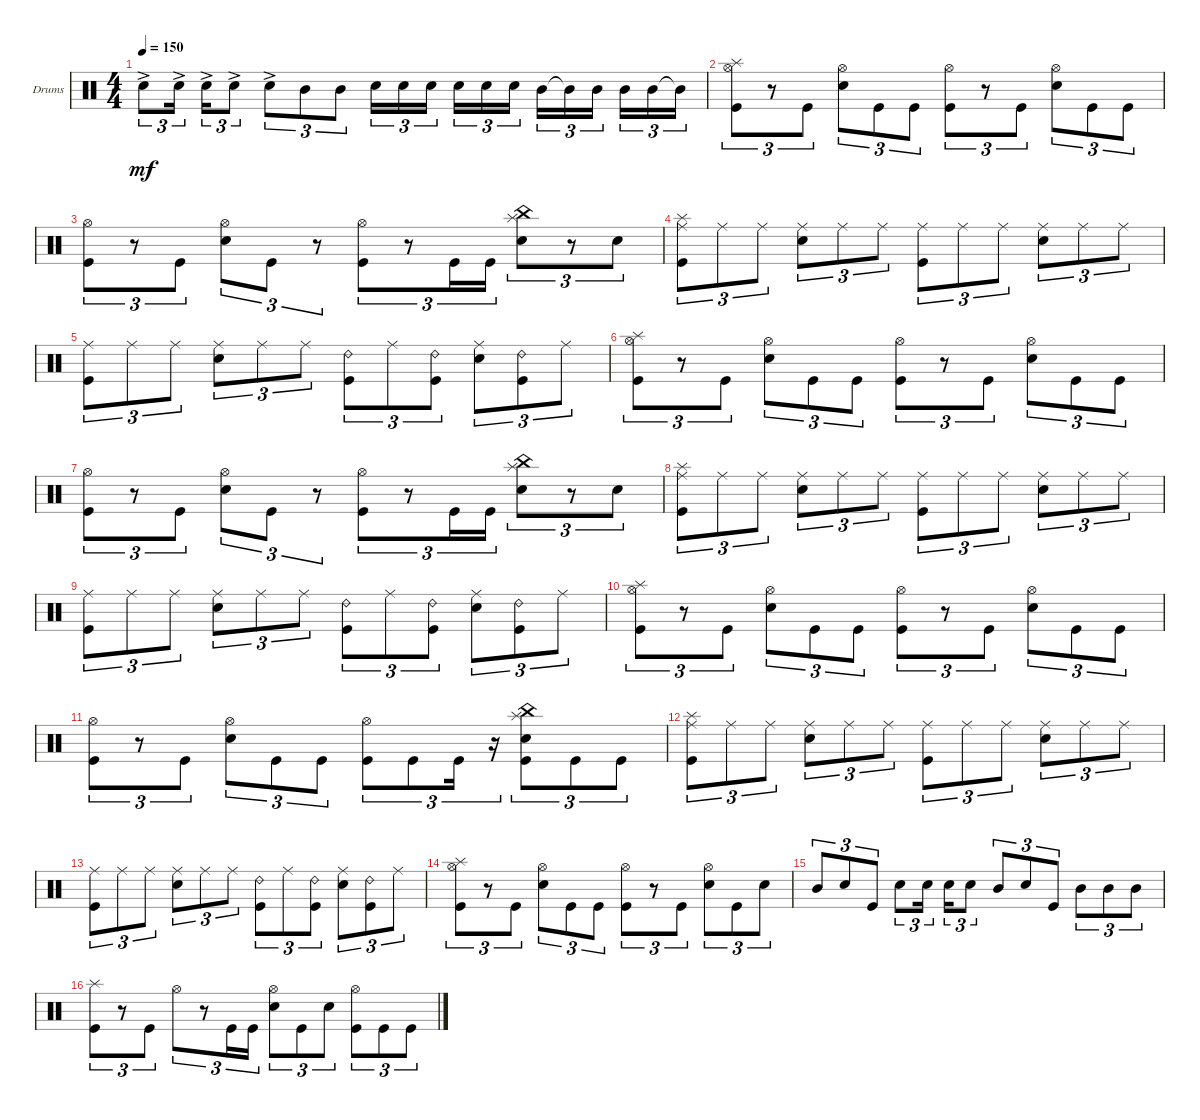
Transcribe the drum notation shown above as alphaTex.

\bracketExtendMode groupsimilarinstruments
\firstSystemTrackNameOrientation horizontal
\otherSystemsTrackNameOrientation horizontal
\track ("Drumkit" "Drums") {instrument percussion}
\staff {score}
\articulation defaults
\ts (4 4)
\tempo 150
\clef neutral
\ks c "Snare (hit) 2"{ac}.8{tu (3 2) dy mf} "Snare (hit) 2"{ac}.16{tu (3 2)} "Snare (hit) 2"{ac}.16{tu (3 2)} "Snare (hit) 2"{ac}.8{tu (3 2)} "Snare (hit) 2"{ac}.8{tu (3 2)} "Mid Tom (hit)".8{tu (3 2)} "Mid Tom (hit)".8{tu (3 2)} "Snare (hit) 2".16{tu (3 2)} "Snare (hit) 2".16{tu (3 2)} "Snare (hit) 2".16{tu (3 2)} "Snare (hit) 2".16{tu (3 2)} "Snare (hit) 2".16{tu (3 2)} "Snare (hit) 2".16{tu (3 2)} "Mid Tom (hit)".16{tu (3 2)} "Mid Tom (hit)"{t}.16{tu (3 2)} "Mid Tom (hit)".16{tu (3 2)} "Mid Tom (hit)".16{tu (3 2)} "Mid Tom (hit)".16{tu (3 2)} "Mid Tom (hit)"{t}.16{tu (3 2)}
|
("Kick (hit)" "Splash (hit)" "Hi-Hat (open)").8{tu (3 2)} r.8{tu (3 2)} "Kick (hit)".8{tu (3 2)} ("Snare (hit) 2" "Hi-Hat (open)").8{tu (3 2)} "Kick (hit)".8{tu (3 2)} "Kick (hit)".8{tu (3 2)} ("Kick (hit)" "Hi-Hat (open)").8{tu (3 2)} r.8{tu (3 2)} "Kick (hit)".8{tu (3 2)} ("Snare (hit) 2" "Hi-Hat (open)").8{tu (3 2)} "Kick (hit)".8{tu (3 2)} "Kick (hit)".8{tu (3 2)} |
("Kick (hit)" "Hi-Hat (open)").8{tu (3 2)} r.8{tu (3 2)} "Kick (hit)".8{tu (3 2)} ("Snare (hit) 2" "Hi-Hat (open)").8{tu (3 2)} "Kick (hit)".8{tu (3 2)} r.8{tu (3 2)} ("Kick (hit)" "Hi-Hat (open)").8{tu (3 2)} r.8{tu (3 2)} "Kick (hit)".16{tu (3 2)} "Kick (hit)".16{tu (3 2)} ("Snare (hit) 2" "China (hit)" "Splash (hit)").8{tu (3 2)} r.8{tu (3 2)} "Snare (hit) 2".8{tu (3 2)} |
("Kick (hit)" "Splash (hit)" "Ride (middle)").8{tu (3 2)} "Ride (middle)".8{tu (3 2)} "Ride (middle)".8{tu (3 2)} ("Snare (hit) 2" "Ride (middle)").8{tu (3 2)} "Ride (middle)".8{tu (3 2)} "Ride (middle)".8{tu (3 2)} ("Kick (hit)" "Ride (middle)").8{tu (3 2)} "Ride (middle)".8{tu (3 2)} "Ride (middle)".8{tu (3 2)} ("Snare (hit) 2" "Ride (middle)").8{tu (3 2)} "Ride (middle)".8{tu (3 2)} "Ride (middle)".8{tu (3 2)} |
("Kick (hit)" "Ride (middle)").8{tu (3 2)} "Ride (middle)".8{tu (3 2)} "Ride (middle)".8{tu (3 2)} ("Snare (hit) 2" "Ride (middle)").8{tu (3 2)} "Ride (middle)".8{tu (3 2)} "Ride (middle)".8{tu (3 2)} ("Kick (hit)" "Ride (bell) 2").8{tu (3 2)} "Ride (middle)".8{tu (3 2)} ("Kick (hit)" "Ride (bell) 2").8{tu (3 2)} ("Snare (hit) 2" "Ride (middle)").8{tu (3 2)} ("Kick (hit)" "Ride (bell) 2").8{tu (3 2)} "Ride (middle)".8{tu (3 2)} |
("Kick (hit)" "Splash (hit)" "Hi-Hat (open)").8{tu (3 2)} r.8{tu (3 2)} "Kick (hit)".8{tu (3 2)} ("Snare (hit) 2" "Hi-Hat (open)").8{tu (3 2)} "Kick (hit)".8{tu (3 2)} "Kick (hit)".8{tu (3 2)} ("Kick (hit)" "Hi-Hat (open)").8{tu (3 2)} r.8{tu (3 2)} "Kick (hit)".8{tu (3 2)} ("Snare (hit) 2" "Hi-Hat (open)").8{tu (3 2)} "Kick (hit)".8{tu (3 2)} "Kick (hit)".8{tu (3 2)} |
("Kick (hit)" "Hi-Hat (open)").8{tu (3 2)} r.8{tu (3 2)} "Kick (hit)".8{tu (3 2)} ("Snare (hit) 2" "Hi-Hat (open)").8{tu (3 2)} "Kick (hit)".8{tu (3 2)} r.8{tu (3 2)} ("Kick (hit)" "Hi-Hat (open)").8{tu (3 2)} r.8{tu (3 2)} "Kick (hit)".16{tu (3 2)} "Kick (hit)".16{tu (3 2)} ("Snare (hit) 2" "China (hit)" "Splash (hit)").8{tu (3 2)} r.8{tu (3 2)} "Snare (hit) 2".8{tu (3 2)} |
("Kick (hit)" "Splash (hit)" "Ride (middle)").8{tu (3 2)} "Ride (middle)".8{tu (3 2)} "Ride (middle)".8{tu (3 2)} ("Snare (hit) 2" "Ride (middle)").8{tu (3 2)} "Ride (middle)".8{tu (3 2)} "Ride (middle)".8{tu (3 2)} ("Kick (hit)" "Ride (middle)").8{tu (3 2)} "Ride (middle)".8{tu (3 2)} "Ride (middle)".8{tu (3 2)} ("Snare (hit) 2" "Ride (middle)").8{tu (3 2)} "Ride (middle)".8{tu (3 2)} "Ride (middle)".8{tu (3 2)} |
("Kick (hit)" "Ride (middle)").8{tu (3 2)} "Ride (middle)".8{tu (3 2)} "Ride (middle)".8{tu (3 2)} ("Snare (hit) 2" "Ride (middle)").8{tu (3 2)} "Ride (middle)".8{tu (3 2)} "Ride (middle)".8{tu (3 2)} ("Kick (hit)" "Ride (bell) 2").8{tu (3 2)} "Ride (middle)".8{tu (3 2)} ("Kick (hit)" "Ride (bell) 2").8{tu (3 2)} ("Snare (hit) 2" "Ride (middle)").8{tu (3 2)} ("Kick (hit)" "Ride (bell) 2").8{tu (3 2)} "Ride (middle)".8{tu (3 2)} |
("Kick (hit)" "Splash (hit)" "Hi-Hat (open)").8{tu (3 2)} r.8{tu (3 2)} "Kick (hit)".8{tu (3 2)} ("Snare (hit) 2" "Hi-Hat (open)").8{tu (3 2)} "Kick (hit)".8{tu (3 2)} "Kick (hit)".8{tu (3 2)} ("Kick (hit)" "Hi-Hat (open)").8{tu (3 2)} r.8{tu (3 2)} "Kick (hit)".8{tu (3 2)} ("Snare (hit) 2" "Hi-Hat (open)").8{tu (3 2)} "Kick (hit)".8{tu (3 2)} "Kick (hit)".8{tu (3 2)} |
("Kick (hit)" "Hi-Hat (open)").8{tu (3 2)} r.8{tu (3 2)} "Kick (hit)".8{tu (3 2)} ("Snare (hit) 2" "Hi-Hat (open)").8{tu (3 2)} "Kick (hit)".8{tu (3 2)} "Kick (hit)".8{tu (3 2)} ("Kick (hit)" "Hi-Hat (open)").8{tu (3 2)} "Kick (hit)".8{tu (3 2)} "Kick (hit)".16{tu (3 2)} r.16{tu (3 2)} ("Snare (hit) 2" "China (hit)" "Splash (hit)" "Kick (hit)").8{tu (3 2)} "Kick (hit)".8{tu (3 2)} "Kick (hit)".8{tu (3 2)} |
("Kick (hit)" "Splash (hit)" "Ride (middle)").8{tu (3 2)} "Ride (middle)".8{tu (3 2)} "Ride (middle)".8{tu (3 2)} ("Snare (hit) 2" "Ride (middle)").8{tu (3 2)} "Ride (middle)".8{tu (3 2)} "Ride (middle)".8{tu (3 2)} ("Kick (hit)" "Ride (middle)").8{tu (3 2)} "Ride (middle)".8{tu (3 2)} "Ride (middle)".8{tu (3 2)} ("Snare (hit) 2" "Ride (middle)").8{tu (3 2)} "Ride (middle)".8{tu (3 2)} "Ride (middle)".8{tu (3 2)} |
("Kick (hit)" "Ride (middle)").8{tu (3 2)} "Ride (middle)".8{tu (3 2)} "Ride (middle)".8{tu (3 2)} ("Snare (hit) 2" "Ride (middle)").8{tu (3 2)} "Ride (middle)".8{tu (3 2)} "Ride (middle)".8{tu (3 2)} ("Kick (hit)" "Ride (bell) 2").8{tu (3 2)} "Ride (middle)".8{tu (3 2)} ("Kick (hit)" "Ride (bell) 2").8{tu (3 2)} ("Snare (hit) 2" "Ride (middle)").8{tu (3 2)} ("Kick (hit)" "Ride (bell) 2").8{tu (3 2)} "Ride (middle)".8{tu (3 2)} |
("Kick (hit)" "Splash (hit)" "Hi-Hat (open)").8{tu (3 2)} r.8{tu (3 2)} "Kick (hit)".8{tu (3 2)} ("Snare (hit) 2" "Hi-Hat (open)").8{tu (3 2)} "Kick (hit)".8{tu (3 2)} "Kick (hit)".8{tu (3 2)} ("Kick (hit)" "Hi-Hat (open)").8{tu (3 2)} r.8{tu (3 2)} "Kick (hit)".8{tu (3 2)} ("Snare (hit) 2" "Hi-Hat (open)").8{tu (3 2)} "Kick (hit)".8{tu (3 2)} "Snare (hit) 2".8{tu (3 2)} |
"Mid Tom (hit)".8{tu (3 2)} "Snare (hit) 2".8{tu (3 2)} "Kick (hit)".8{tu (3 2)} "Snare (hit) 2".8{tu (3 2)} "Snare (hit) 2".16{tu (3 2)} "Snare (hit) 2".16{tu (3 2)} "Snare (hit) 2".8{tu (3 2)} "Mid Tom (hit)".8{tu (3 2)} "Snare (hit) 2".8{tu (3 2)} "Kick (hit)".8{tu (3 2)} "Mid Tom (hit)".8{tu (3 2)} "Mid Tom (hit)".8{tu (3 2)} "Mid Tom (hit)".8{tu (3 2)} |
("Kick (hit)" "Splash (hit)").8{tu (3 2)} r.8{tu (3 2)} "Kick (hit)".8{tu (3 2)} "Hi-Hat (open)".8{tu (3 2)} r.8{tu (3 2)} "Kick (hit)".16{tu (3 2)} "Kick (hit)".16{tu (3 2)} ("Snare (hit) 2" "Hi-Hat (open)").8{tu (3 2)} "Kick (hit)".8{tu (3 2)} "Snare (hit) 2".8{tu (3 2)} ("Kick (hit)" "Hi-Hat (open)").8{tu (3 2)} "Kick (hit)".8{tu (3 2)} "Kick (hit)".8{tu (3 2)}
